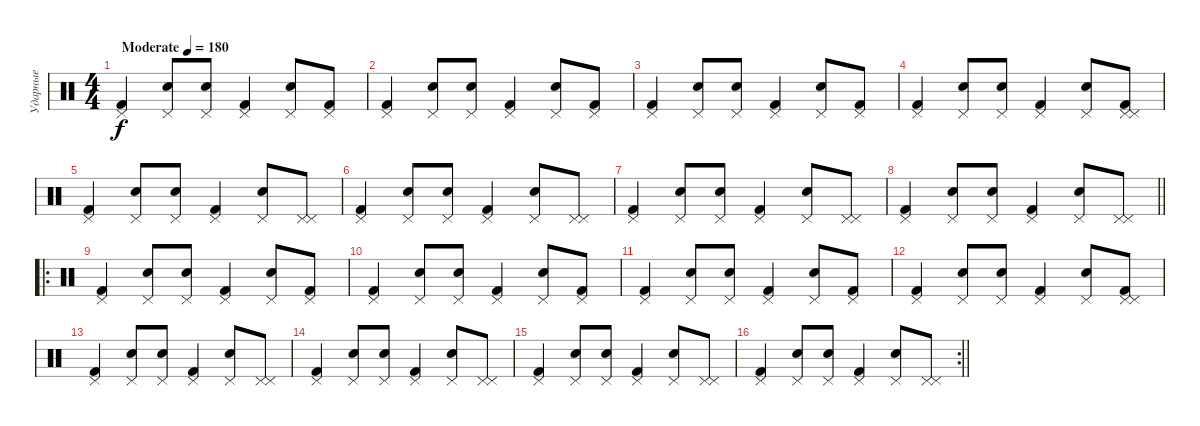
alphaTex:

\track ("Ударные" "Ударные") {instrument percussion}
\staff {score}
\articulation defaults
\ts (4 4)
\tempo (180 "Moderate")
\clef neutral
\ks c
("Kick (hit) 2" "Pedal Hi-Hat (hit)").4{dy f} ("Electric Snare (hit)" "Pedal Hi-Hat (hit)").8 ("Electric Snare (hit)" "Pedal Hi-Hat (hit)").8 ("Kick (hit) 2" "Pedal Hi-Hat (hit)").4 ("Pedal Hi-Hat (hit)" "Electric Snare (hit)").8 ("Kick (hit) 2" "Pedal Hi-Hat (hit)").8 |
("Kick (hit) 2" "Pedal Hi-Hat (hit)").4 ("Electric Snare (hit)" "Pedal Hi-Hat (hit)").8 ("Electric Snare (hit)" "Pedal Hi-Hat (hit)").8 ("Kick (hit) 2" "Pedal Hi-Hat (hit)").4 ("Electric Snare (hit)" "Pedal Hi-Hat (hit)").8 ("Kick (hit) 2" "Pedal Hi-Hat (hit)").8 |
("Kick (hit) 2" "Pedal Hi-Hat (hit)").4 ("Electric Snare (hit)" "Pedal Hi-Hat (hit)").8 ("Electric Snare (hit)" "Pedal Hi-Hat (hit)").8 ("Kick (hit) 2" "Pedal Hi-Hat (hit)").4 ("Electric Snare (hit)" "Pedal Hi-Hat (hit)").8 ("Kick (hit) 2" "Pedal Hi-Hat (hit)").8 |
("Kick (hit) 2" "Pedal Hi-Hat (hit)").4 ("Electric Snare (hit)" "Pedal Hi-Hat (hit)").8 ("Electric Snare (hit)" "Pedal Hi-Hat (hit)").8 ("Kick (hit) 2" "Pedal Hi-Hat (hit)").4 ("Electric Snare (hit)" "Pedal Hi-Hat (hit)").8 ("Kick (hit) 2" "Pedal Hi-Hat (hit)" "Pedal Hi-Hat (hit)").8 |
("Kick (hit) 2" "Pedal Hi-Hat (hit)").4 ("Electric Snare (hit)" "Pedal Hi-Hat (hit)").8 ("Electric Snare (hit)" "Pedal Hi-Hat (hit)").8 ("Kick (hit) 2" "Pedal Hi-Hat (hit)").4 ("Electric Snare (hit)" "Pedal Hi-Hat (hit)").8 ("Pedal Hi-Hat (hit)" "Pedal Hi-Hat (hit)").8 |
("Kick (hit) 2" "Pedal Hi-Hat (hit)").4 ("Electric Snare (hit)" "Pedal Hi-Hat (hit)").8 ("Electric Snare (hit)" "Pedal Hi-Hat (hit)").8 ("Kick (hit) 2" "Pedal Hi-Hat (hit)").4 ("Electric Snare (hit)" "Pedal Hi-Hat (hit)").8 ("Pedal Hi-Hat (hit)" "Pedal Hi-Hat (hit)").8 |
("Kick (hit) 2" "Pedal Hi-Hat (hit)").4 ("Electric Snare (hit)" "Pedal Hi-Hat (hit)").8 ("Electric Snare (hit)" "Pedal Hi-Hat (hit)").8 ("Kick (hit) 2" "Pedal Hi-Hat (hit)").4 ("Electric Snare (hit)" "Pedal Hi-Hat (hit)").8 ("Pedal Hi-Hat (hit)" "Pedal Hi-Hat (hit)").8 |
\barLineRight lightlight
("Kick (hit) 2" "Pedal Hi-Hat (hit)").4 ("Electric Snare (hit)" "Pedal Hi-Hat (hit)").8 ("Electric Snare (hit)" "Pedal Hi-Hat (hit)").8 ("Kick (hit) 2" "Pedal Hi-Hat (hit)").4 ("Electric Snare (hit)" "Pedal Hi-Hat (hit)").8 ("Pedal Hi-Hat (hit)" "Pedal Hi-Hat (hit)").8 |
\ro
("Kick (hit) 2" "Pedal Hi-Hat (hit)").4 ("Electric Snare (hit)" "Pedal Hi-Hat (hit)").8 ("Electric Snare (hit)" "Pedal Hi-Hat (hit)").8 ("Kick (hit) 2" "Pedal Hi-Hat (hit)").4 ("Pedal Hi-Hat (hit)" "Electric Snare (hit)").8 ("Kick (hit) 2" "Pedal Hi-Hat (hit)").8 |
("Kick (hit) 2" "Pedal Hi-Hat (hit)").4 ("Electric Snare (hit)" "Pedal Hi-Hat (hit)").8 ("Electric Snare (hit)" "Pedal Hi-Hat (hit)").8 ("Kick (hit) 2" "Pedal Hi-Hat (hit)").4 ("Electric Snare (hit)" "Pedal Hi-Hat (hit)").8 ("Kick (hit) 2" "Pedal Hi-Hat (hit)").8 |
("Kick (hit) 2" "Pedal Hi-Hat (hit)").4 ("Electric Snare (hit)" "Pedal Hi-Hat (hit)").8 ("Electric Snare (hit)" "Pedal Hi-Hat (hit)").8 ("Kick (hit) 2" "Pedal Hi-Hat (hit)").4 ("Electric Snare (hit)" "Pedal Hi-Hat (hit)").8 ("Kick (hit) 2" "Pedal Hi-Hat (hit)").8 |
("Kick (hit) 2" "Pedal Hi-Hat (hit)").4 ("Electric Snare (hit)" "Pedal Hi-Hat (hit)").8 ("Electric Snare (hit)" "Pedal Hi-Hat (hit)").8 ("Kick (hit) 2" "Pedal Hi-Hat (hit)").4 ("Electric Snare (hit)" "Pedal Hi-Hat (hit)").8 ("Kick (hit) 2" "Pedal Hi-Hat (hit)" "Pedal Hi-Hat (hit)").8 |
("Kick (hit) 2" "Pedal Hi-Hat (hit)").4 ("Electric Snare (hit)" "Pedal Hi-Hat (hit)").8 ("Electric Snare (hit)" "Pedal Hi-Hat (hit)").8 ("Kick (hit) 2" "Pedal Hi-Hat (hit)").4 ("Electric Snare (hit)" "Pedal Hi-Hat (hit)").8 ("Pedal Hi-Hat (hit)" "Pedal Hi-Hat (hit)").8 |
("Kick (hit) 2" "Pedal Hi-Hat (hit)").4 ("Electric Snare (hit)" "Pedal Hi-Hat (hit)").8 ("Electric Snare (hit)" "Pedal Hi-Hat (hit)").8 ("Kick (hit) 2" "Pedal Hi-Hat (hit)").4 ("Electric Snare (hit)" "Pedal Hi-Hat (hit)").8 ("Pedal Hi-Hat (hit)" "Pedal Hi-Hat (hit)").8 |
("Kick (hit) 2" "Pedal Hi-Hat (hit)").4 ("Electric Snare (hit)" "Pedal Hi-Hat (hit)").8 ("Electric Snare (hit)" "Pedal Hi-Hat (hit)").8 ("Kick (hit) 2" "Pedal Hi-Hat (hit)").4 ("Electric Snare (hit)" "Pedal Hi-Hat (hit)").8 ("Pedal Hi-Hat (hit)" "Pedal Hi-Hat (hit)").8 |
\rc 2
\barLineRight lightlight
("Kick (hit) 2" "Pedal Hi-Hat (hit)").4 ("Electric Snare (hit)" "Pedal Hi-Hat (hit)").8 ("Electric Snare (hit)" "Pedal Hi-Hat (hit)").8 ("Kick (hit) 2" "Pedal Hi-Hat (hit)").4 ("Electric Snare (hit)" "Pedal Hi-Hat (hit)").8 ("Pedal Hi-Hat (hit)" "Pedal Hi-Hat (hit)").8
